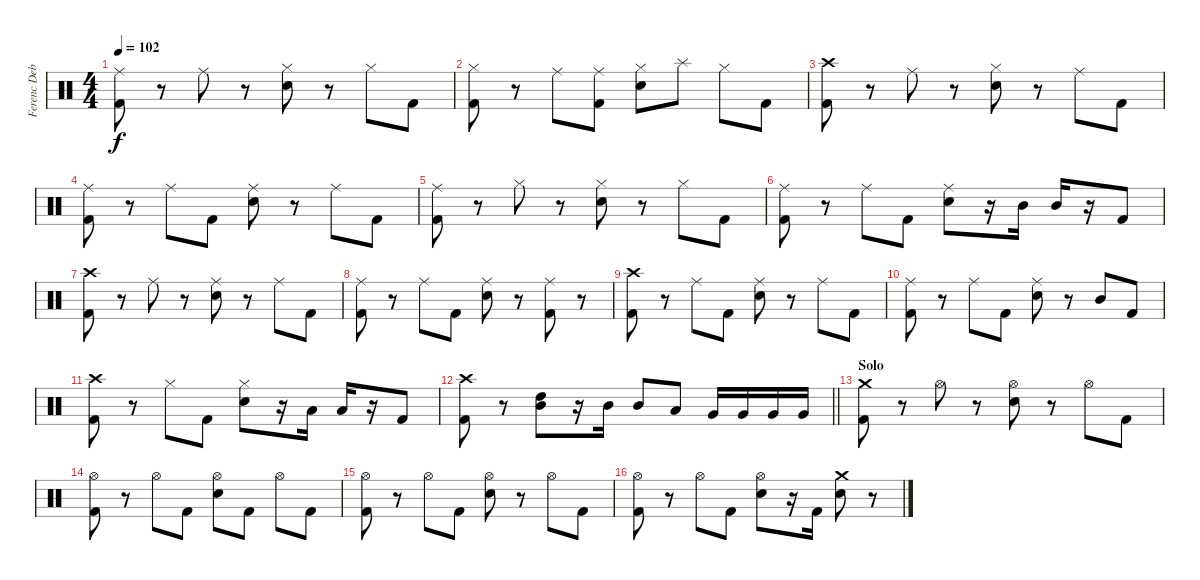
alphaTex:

\track ("Ferenc Debreczeni - drums" "Ferenc Deb") {instrument percussion}
\staff {score}
\articulation defaults
\ts (4 4)
\tempo 102
\clef neutral
\ks c
("Kick (hit) 2" "Ride (middle)").8{dy f} r.8 "Ride (middle)".8 r.8 ("Snare (hit) 2" "Hi-Hat (closed)").8 r.8 "Hi-Hat (closed)".8 "Kick (hit) 2".8 |
("Kick (hit) 2" "Hi-Hat (closed)").8 r.8 "Ride (middle)".8 ("Kick (hit) 2" "Ride (middle)").8 ("Snare (hit) 2" "Hi-Hat (closed)").8 "Splash (hit)".8 "Hi-Hat (closed)".8 "Kick (hit) 2".8 |
("Kick (hit) 2" "Crash high (hit)").8 r.8 "Ride (middle)".8 r.8 ("Snare (hit) 2" "Hi-Hat (closed)").8 r.8 "Ride (middle)".8 "Kick (hit) 2".8 |
("Kick (hit) 2" "Ride (middle)").8 r.8 "Ride (middle)".8 "Kick (hit) 2".8 ("Snare (hit) 2" "Ride (middle)").8 r.8 "Ride (middle)".8 "Kick (hit) 2".8 |
("Kick (hit) 2" "Ride (middle)").8 r.8 "Hi-Hat (closed)".8 r.8 ("Snare (hit) 2" "Hi-Hat (closed)").8 r.8 "Hi-Hat (closed)".8 "Kick (hit) 2".8 |
("Kick (hit) 2" "Ride (middle)").8 r.8 "Ride (middle)".8 "Kick (hit) 2".8 ("Snare (hit) 2" "Ride (middle)").8 r.16 "Mid Tom (hit)".16 "Mid Tom (hit)".16 r.16 "Kick (hit) 2".8 |
("Kick (hit) 2" "Crash high (hit)").8 r.8 "Ride (middle)".8 r.8 ("Snare (hit) 2" "Ride (middle)").8 r.8 "Ride (middle)".8 "Kick (hit) 2".8 |
("Kick (hit) 2" "Ride (middle)").8 r.8 "Ride (middle)".8 "Kick (hit) 2".8 ("Snare (hit) 2" "Ride (middle)").8 r.8 ("Kick (hit) 2" "Ride (middle)").8 r.8 |
("Kick (hit) 2" "Crash high (hit)").8 r.8 "Ride (middle)".8 "Kick (hit) 2".8 ("Snare (hit) 2" "Ride (middle)").8 r.8 "Ride (middle)".8 "Kick (hit) 2".8 |
("Kick (hit) 2" "Ride (middle)").8 r.8 "Ride (middle)".8 "Kick (hit) 2".8 ("Snare (hit) 2" "Ride (middle)").8 r.8 "Mid Tom (hit)".8 "Kick (hit) 2".8 |
("Kick (hit) 2" "Crash high (hit)").8 r.8 "Hi-Hat (closed)".8 "Kick (hit) 2".8 ("Snare (hit) 2" "Hi-Hat (closed)").8 r.16 "Low Tom (hit)".16 "Low Tom (hit)".16 r.16 "Kick (hit) 2".8 |
\barLineRight lightlight
("Crash high (hit)" "Kick (hit) 2").8 r.8 ("High Tom (hit)" "Mid Tom (hit)").8 r.16 "Mid Tom (hit)".16 "Mid Tom (hit)".8 "Low Tom (hit)".8 "Very Low Tom (hit)".16 "Very Low Tom (hit)".16 "Very Low Tom (hit)".16 "Very Low Tom (hit)".16 |
\section ("" "Solo")
("Crash medium (hit)" "Kick (hit) 2").8 r.8 "Hi-Hat (open)".8 r.8 ("Hi-Hat (open)" "Snare (hit) 2").8 r.8 "Hi-Hat (open)".8 "Kick (hit) 2".8 |
("Hi-Hat (open)" "Kick (hit) 2").8 r.8 "Hi-Hat (open)".8 "Kick (hit) 2".8 ("Hi-Hat (open)" "Snare (hit) 2").8 "Kick (hit) 2".8 "Hi-Hat (open)".8 "Kick (hit) 2".8 |
("Hi-Hat (open)" "Kick (hit) 2").8 r.8 "Hi-Hat (open)".8 "Kick (hit) 2".8 ("Hi-Hat (open)" "Snare (hit) 2").8 r.8 "Hi-Hat (open)".8 "Kick (hit) 2".8 |
("Hi-Hat (open)" "Kick (hit) 2").8 r.8 "Hi-Hat (open)".8 "Kick (hit) 2".8 ("Hi-Hat (open)" "Snare (hit) 2").8 r.16 "Kick (hit) 2".16 ("Crash medium (hit)" "Snare (hit) 2").8 r.8
